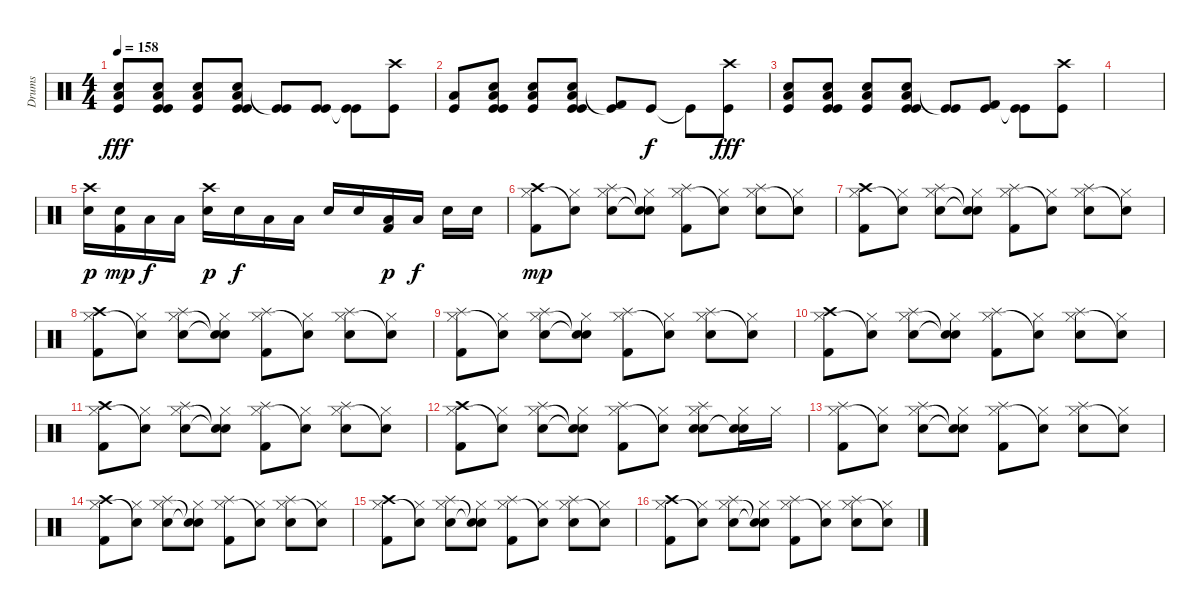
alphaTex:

\track ("Drums" "Drums") {instrument percussion}
\staff {score}
\articulation defaults
\ts (4 4)
\tempo 158
\clef neutral
\ks c
("Low Floor Tom (hit)" "Electric Snare (hit)" "Kick (hit)").8{dy fff} ("Low Floor Tom (hit)" "Electric Snare (hit)" "Kick (hit)" "Kick (hit)").8 ("Low Floor Tom (hit)" "Electric Snare (hit)" "Kick (hit)").8 ("Low Floor Tom (hit)" "Electric Snare (hit)" "Kick (hit)" "Kick (hit)").8 ("Kick (hit)" "Kick (hit)"{t}).8 ("Kick (hit)" "Kick (hit)").8 ("Kick (hit)" "Kick (hit)"{t}).8 ("Crash high (hit)" "Kick (hit)").8 |
("Low Floor Tom (hit)" "Kick (hit)").8 ("Low Floor Tom (hit)" "Electric Snare (hit)" "Kick (hit)" "Kick (hit)").8 ("Low Floor Tom (hit)" "Electric Snare (hit)" "Kick (hit)").8 ("Low Floor Tom (hit)" "Electric Snare (hit)" "Kick (hit)" "Kick (hit)").8 ("Kick (hit) 2" "Kick (hit)"{t}).8 "Kick (hit)".8{dy f} "Kick (hit)"{t}.8 ("Crash high (hit)" "Kick (hit)").8{dy fff} |
("Low Floor Tom (hit)" "Electric Snare (hit)" "Kick (hit)").8 ("Low Floor Tom (hit)" "Electric Snare (hit)" "Kick (hit)" "Kick (hit)").8 ("Low Floor Tom (hit)" "Electric Snare (hit)" "Kick (hit)").8 ("Low Floor Tom (hit)" "Electric Snare (hit)" "Kick (hit)" "Kick (hit)").8 ("Kick (hit)" "Kick (hit)"{t}).8 ("Kick (hit) 2" "Kick (hit)").8 ("Kick (hit)" "Kick (hit)"{t}).8 ("Crash high (hit)" "Kick (hit)").8 |
|
("Crash high (hit)" "Electric Snare (hit)").16{dy p} ("Electric Snare (hit)" "Kick (hit) 2").16{dy mp} "Low Tom (hit)".16{dy f} "Low Tom (hit)".16 ("Crash high (hit)" "Electric Snare (hit)").16{dy p} "Electric Snare (hit)".16{dy f} "Low Tom (hit)".16 "Low Tom (hit)".16 "Electric Snare (hit)".16 "Electric Snare (hit)".16 ("Low Tom (hit)" "Kick (hit) 2").16{dy p} "Low Tom (hit)".16{dy f} "Electric Snare (hit)".16 "Electric Snare (hit)".16 |
("Crash high (hit)" "Hi-Hat (closed)" "Kick (hit) 2").8{dy mp} ("Hi-Hat (closed)" "Snare (hit)"{t}).8 ("Splash (hit)" "Hi-Hat (closed)" "Electric Snare (hit)").8 ("Hi-Hat (closed)" "Electric Snare (hit)"{t} "Snare (hit)"{t}).8 ("Splash (hit)" "Hi-Hat (closed)" "Kick (hit) 2").8 ("Hi-Hat (closed)" "Snare (hit)"{t}).8 ("Splash (hit)" "Hi-Hat (closed)" "Electric Snare (hit)").8 ("Hi-Hat (closed)" "Snare (hit)"{t}).8 |
("Crash high (hit)" "Hi-Hat (closed)" "Kick (hit) 2").8 ("Hi-Hat (closed)" "Snare (hit)"{t}).8 ("Splash (hit)" "Hi-Hat (closed)" "Electric Snare (hit)").8 ("Hi-Hat (closed)" "Electric Snare (hit)"{t} "Snare (hit)"{t}).8 ("Splash (hit)" "Hi-Hat (closed)" "Kick (hit) 2").8 ("Hi-Hat (closed)" "Snare (hit)"{t}).8 ("Splash (hit)" "Hi-Hat (closed)" "Electric Snare (hit)").8 ("Hi-Hat (closed)" "Snare (hit)"{t}).8 |
("Crash high (hit)" "Hi-Hat (closed)" "Kick (hit) 2").8 ("Hi-Hat (closed)" "Snare (hit)"{t}).8 ("Splash (hit)" "Hi-Hat (closed)" "Electric Snare (hit)").8 ("Hi-Hat (closed)" "Electric Snare (hit)"{t} "Snare (hit)"{t}).8 ("Splash (hit)" "Hi-Hat (closed)" "Kick (hit) 2").8 ("Hi-Hat (closed)" "Snare (hit)"{t}).8 ("Splash (hit)" "Hi-Hat (closed)" "Electric Snare (hit)").8 ("Hi-Hat (closed)" "Snare (hit)"{t}).8 |
("Splash (hit)" "Hi-Hat (closed)" "Kick (hit) 2").8 ("Hi-Hat (closed)" "Snare (hit)"{t}).8 ("Splash (hit)" "Hi-Hat (closed)" "Electric Snare (hit)").8 ("Hi-Hat (closed)" "Electric Snare (hit)"{t} "Snare (hit)"{t}).8 ("Splash (hit)" "Hi-Hat (closed)" "Kick (hit) 2").8 ("Hi-Hat (closed)" "Snare (hit)"{t}).8 ("Splash (hit)" "Hi-Hat (closed)" "Electric Snare (hit)").8 ("Hi-Hat (closed)" "Snare (hit)"{t}).8 |
("Crash high (hit)" "Hi-Hat (closed)" "Kick (hit) 2").8 ("Hi-Hat (closed)" "Snare (hit)"{t}).8 ("Splash (hit)" "Hi-Hat (closed)" "Electric Snare (hit)").8 ("Hi-Hat (closed)" "Electric Snare (hit)"{t} "Snare (hit)"{t}).8 ("Splash (hit)" "Hi-Hat (closed)" "Kick (hit) 2").8 ("Hi-Hat (closed)" "Snare (hit)"{t}).8 ("Splash (hit)" "Hi-Hat (closed)" "Electric Snare (hit)").8 ("Hi-Hat (closed)" "Snare (hit)"{t}).8 |
("Crash high (hit)" "Hi-Hat (closed)" "Kick (hit) 2").8 ("Hi-Hat (closed)" "Snare (hit)"{t}).8 ("Splash (hit)" "Hi-Hat (closed)" "Electric Snare (hit)").8 ("Hi-Hat (closed)" "Electric Snare (hit)"{t} "Snare (hit)"{t}).8 ("Splash (hit)" "Hi-Hat (closed)" "Kick (hit) 2").8 ("Hi-Hat (closed)" "Snare (hit)"{t}).8 ("Splash (hit)" "Hi-Hat (closed)" "Electric Snare (hit)").8 ("Hi-Hat (closed)" "Snare (hit)"{t}).8 |
("Crash high (hit)" "Hi-Hat (closed)" "Kick (hit) 2").8 ("Hi-Hat (closed)" "Snare (hit)"{t}).8 ("Splash (hit)" "Hi-Hat (closed)" "Electric Snare (hit)").8 ("Hi-Hat (closed)" "Electric Snare (hit)"{t} "Snare (hit)"{t}).8 ("Splash (hit)" "Hi-Hat (closed)" "Kick (hit) 2").8 ("Hi-Hat (closed)" "Snare (hit)"{t}).8 ("Splash (hit)" "Hi-Hat (closed)" "Electric Snare (hit)" "Electric Snare (hit)").8 ("Hi-Hat (closed)" "Electric Snare (hit)" "Snare (hit)"{t}).16 "Hi-Hat (closed)".16 |
("Splash (hit)" "Hi-Hat (closed)" "Kick (hit) 2").8 ("Hi-Hat (closed)" "Snare (hit)"{t}).8 ("Splash (hit)" "Hi-Hat (closed)" "Electric Snare (hit)").8 ("Hi-Hat (closed)" "Electric Snare (hit)"{t} "Snare (hit)"{t}).8 ("Splash (hit)" "Hi-Hat (closed)" "Kick (hit) 2").8 ("Hi-Hat (closed)" "Snare (hit)"{t}).8 ("Splash (hit)" "Hi-Hat (closed)" "Electric Snare (hit)").8 ("Hi-Hat (closed)" "Snare (hit)"{t}).8 |
("Crash high (hit)" "Hi-Hat (closed)" "Kick (hit) 2").8 ("Hi-Hat (closed)" "Snare (hit)"{t}).8 ("Splash (hit)" "Hi-Hat (closed)" "Electric Snare (hit)").8 ("Hi-Hat (closed)" "Electric Snare (hit)"{t} "Snare (hit)"{t}).8 ("Splash (hit)" "Hi-Hat (closed)" "Kick (hit) 2").8 ("Hi-Hat (closed)" "Snare (hit)"{t}).8 ("Splash (hit)" "Hi-Hat (closed)" "Electric Snare (hit)").8 ("Hi-Hat (closed)" "Snare (hit)"{t}).8 |
("Crash high (hit)" "Hi-Hat (closed)" "Kick (hit) 2").8 ("Hi-Hat (closed)" "Snare (hit)"{t}).8 ("Splash (hit)" "Hi-Hat (closed)" "Electric Snare (hit)").8 ("Hi-Hat (closed)" "Electric Snare (hit)"{t} "Snare (hit)"{t}).8 ("Splash (hit)" "Hi-Hat (closed)" "Kick (hit) 2").8 ("Hi-Hat (closed)" "Snare (hit)"{t}).8 ("Splash (hit)" "Hi-Hat (closed)" "Electric Snare (hit)").8 ("Hi-Hat (closed)" "Snare (hit)"{t}).8 |
("Crash high (hit)" "Hi-Hat (closed)" "Kick (hit) 2").8 ("Hi-Hat (closed)" "Snare (hit)"{t}).8 ("Splash (hit)" "Hi-Hat (closed)" "Electric Snare (hit)").8 ("Hi-Hat (closed)" "Electric Snare (hit)"{t} "Snare (hit)"{t}).8 ("Splash (hit)" "Hi-Hat (closed)" "Kick (hit) 2").8 ("Hi-Hat (closed)" "Snare (hit)"{t}).8 ("Splash (hit)" "Hi-Hat (closed)" "Electric Snare (hit)").8 ("Hi-Hat (closed)" "Snare (hit)"{t}).8
